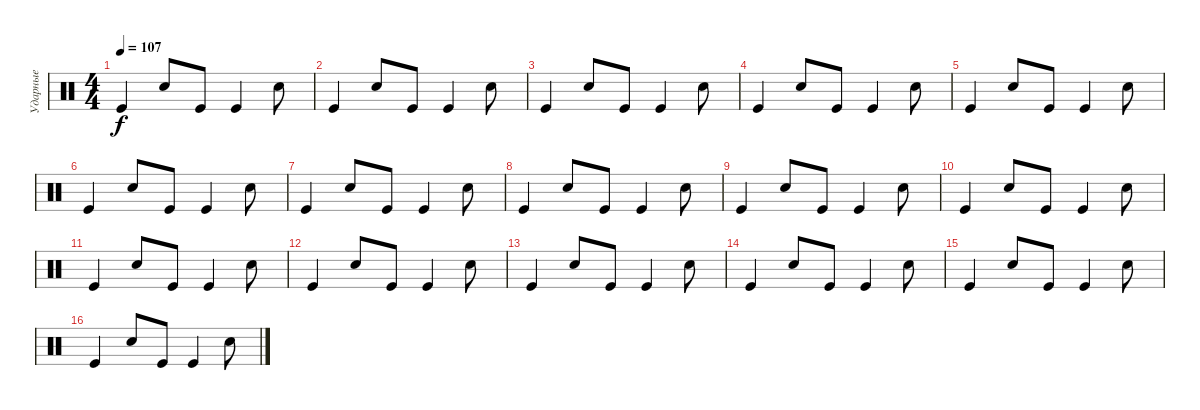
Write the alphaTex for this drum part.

\track ("Ударные" "Ударные") {instrument percussion}
\staff {score}
\articulation defaults
\ts (4 4)
\tempo 107
\clef neutral
\ks c "Kick (hit)".4{dy f} "Snare (hit) 2".8 "Kick (hit)".8 "Kick (hit)".4 "Snare (hit) 2".8
|
"Kick (hit)".4 "Snare (hit) 2".8 "Kick (hit)".8 "Kick (hit)".4 "Snare (hit) 2".8 |
"Kick (hit)".4 "Snare (hit) 2".8 "Kick (hit)".8 "Kick (hit)".4 "Snare (hit) 2".8 |
"Kick (hit)".4 "Snare (hit) 2".8 "Kick (hit)".8 "Kick (hit)".4 "Snare (hit) 2".8 |
"Kick (hit)".4 "Snare (hit) 2".8 "Kick (hit)".8 "Kick (hit)".4 "Snare (hit) 2".8 |
"Kick (hit)".4 "Snare (hit) 2".8 "Kick (hit)".8 "Kick (hit)".4 "Snare (hit) 2".8 |
"Kick (hit)".4 "Snare (hit) 2".8 "Kick (hit)".8 "Kick (hit)".4 "Snare (hit) 2".8 |
"Kick (hit)".4 "Snare (hit) 2".8 "Kick (hit)".8 "Kick (hit)".4 "Snare (hit) 2".8 |
"Kick (hit)".4 "Snare (hit) 2".8 "Kick (hit)".8 "Kick (hit)".4 "Snare (hit) 2".8 |
"Kick (hit)".4 "Snare (hit) 2".8 "Kick (hit)".8 "Kick (hit)".4 "Snare (hit) 2".8 |
"Kick (hit)".4 "Snare (hit) 2".8 "Kick (hit)".8 "Kick (hit)".4 "Snare (hit) 2".8 |
"Kick (hit)".4 "Snare (hit) 2".8 "Kick (hit)".8 "Kick (hit)".4 "Snare (hit) 2".8 |
"Kick (hit)".4 "Snare (hit) 2".8 "Kick (hit)".8 "Kick (hit)".4 "Snare (hit) 2".8 |
"Kick (hit)".4 "Snare (hit) 2".8 "Kick (hit)".8 "Kick (hit)".4 "Snare (hit) 2".8 |
"Kick (hit)".4 "Snare (hit) 2".8 "Kick (hit)".8 "Kick (hit)".4 "Snare (hit) 2".8 |
"Kick (hit)".4 "Snare (hit) 2".8 "Kick (hit)".8 "Kick (hit)".4 "Snare (hit) 2".8
